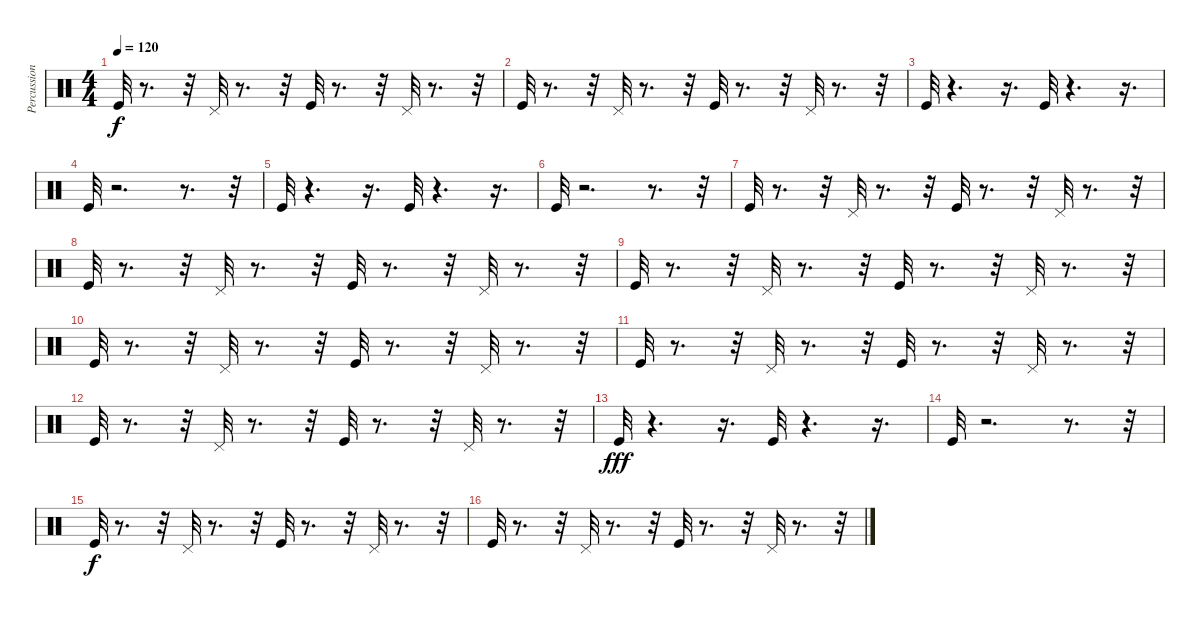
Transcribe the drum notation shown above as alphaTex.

\track ("Percussion" "Percussion") {instrument percussion}
\staff {score}
\articulation defaults
\ts (4 4)
\tempo 120
\clef neutral
\ks c "Kick (hit)".32{dy f}
r.8{d} r.32 "Pedal Hi-Hat (hit)".32 r.8{d} r.32 "Kick (hit)".32 r.8{d} r.32 "Pedal Hi-Hat (hit)".32 r.8{d} r.32 |
"Kick (hit)".32 r.8{d} r.32 "Pedal Hi-Hat (hit)".32 r.8{d} r.32 "Kick (hit)".32 r.8{d} r.32 "Pedal Hi-Hat (hit)".32 r.8{d} r.32 |
"Kick (hit)".32 r.4{d} r.16{d} "Kick (hit)".32 r.4{d} r.16{d} |
"Kick (hit)".32 r.2{d} r.8{d} r.32 |
"Kick (hit)".32 r.4{d} r.16{d} "Kick (hit)".32 r.4{d} r.16{d} |
"Kick (hit)".32 r.2{d} r.8{d} r.32 |
"Kick (hit)".32 r.8{d} r.32 "Pedal Hi-Hat (hit)".32 r.8{d} r.32 "Kick (hit)".32 r.8{d} r.32 "Pedal Hi-Hat (hit)".32 r.8{d} r.32 |
"Kick (hit)".32 r.8{d} r.32 "Pedal Hi-Hat (hit)".32 r.8{d} r.32 "Kick (hit)".32 r.8{d} r.32 "Pedal Hi-Hat (hit)".32 r.8{d} r.32 |
"Kick (hit)".32 r.8{d} r.32 "Pedal Hi-Hat (hit)".32 r.8{d} r.32 "Kick (hit)".32 r.8{d} r.32 "Pedal Hi-Hat (hit)".32 r.8{d} r.32 |
"Kick (hit)".32 r.8{d} r.32 "Pedal Hi-Hat (hit)".32 r.8{d} r.32 "Kick (hit)".32 r.8{d} r.32 "Pedal Hi-Hat (hit)".32 r.8{d} r.32 |
"Kick (hit)".32 r.8{d} r.32 "Pedal Hi-Hat (hit)".32 r.8{d} r.32 "Kick (hit)".32 r.8{d} r.32 "Pedal Hi-Hat (hit)".32 r.8{d} r.32 |
"Kick (hit)".32 r.8{d} r.32 "Pedal Hi-Hat (hit)".32 r.8{d} r.32 "Kick (hit)".32 r.8{d} r.32 "Pedal Hi-Hat (hit)".32 r.8{d} r.32 |
"Kick (hit)".32{dy fff} r.4{d} r.16{d} "Kick (hit)".32 r.4{d} r.16{d} |
"Kick (hit)".32 r.2{d} r.8{d} r.32 |
"Kick (hit)".32{dy f} r.8{d} r.32 "Pedal Hi-Hat (hit)".32 r.8{d} r.32 "Kick (hit)".32 r.8{d} r.32 "Pedal Hi-Hat (hit)".32 r.8{d} r.32 |
"Kick (hit)".32 r.8{d} r.32 "Pedal Hi-Hat (hit)".32 r.8{d} r.32 "Kick (hit)".32 r.8{d} r.32 "Pedal Hi-Hat (hit)".32 r.8{d} r.32
